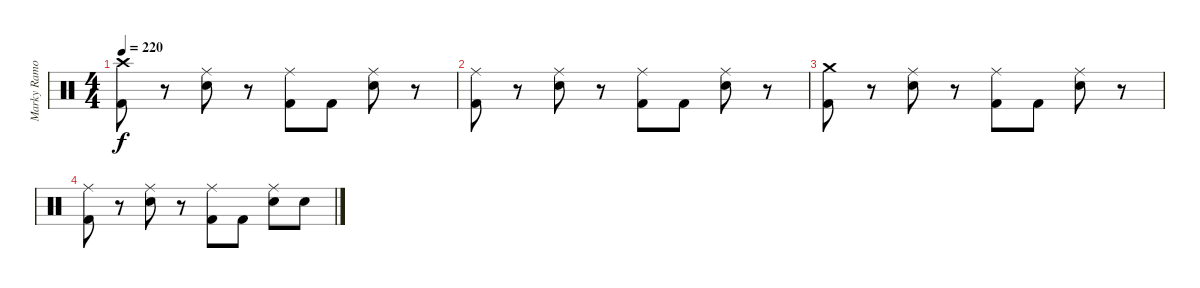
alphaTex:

\track ("Marky Ramone" "Marky Ramo") {instrument percussion}
\staff {score}
\articulation defaults
\ts (4 4)
\tempo 220
\clef neutral
\ks c
("Crash high (hit)" "Kick (hit) 2").8{dy f} r.8 ("Ride (middle)" "Electric Snare (hit)").8 r.8 ("Ride (middle)" "Kick (hit) 2").8 "Kick (hit) 2".8 ("Ride (middle)" "Electric Snare (hit)").8 r.8 |
("Ride (middle)" "Kick (hit) 2").8 r.8 ("Ride (middle)" "Electric Snare (hit)").8 r.8 ("Ride (middle)" "Kick (hit) 2").8 "Kick (hit) 2".8 ("Ride (middle)" "Electric Snare (hit)").8 r.8 |
("Crash medium (hit)" "Kick (hit) 2").8 r.8 ("Ride (middle)" "Electric Snare (hit)").8 r.8 ("Ride (middle)" "Kick (hit) 2").8 "Kick (hit) 2".8 ("Ride (middle)" "Electric Snare (hit)").8 r.8 |
("Ride (middle)" "Kick (hit) 2").8 r.8 ("Ride (middle)" "Electric Snare (hit)").8 r.8 ("Ride (middle)" "Kick (hit) 2").8 "Kick (hit) 2".8 ("Ride (middle)" "Electric Snare (hit)").8 "Electric Snare (hit)".8
